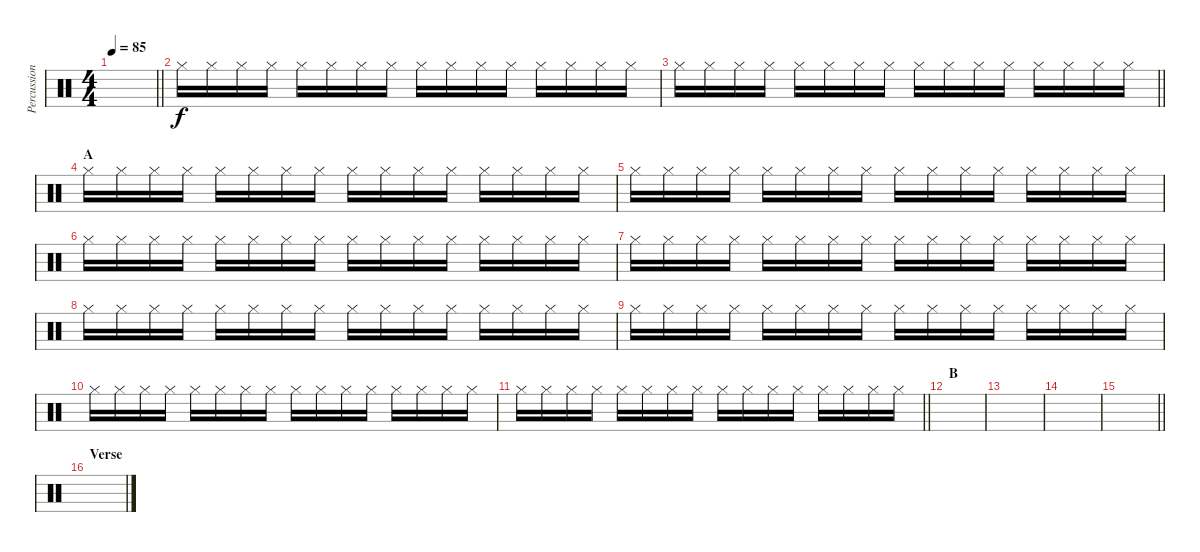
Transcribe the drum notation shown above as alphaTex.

\track ("Percussion" "Percussion") {instrument percussion}
\staff {score}
\articulation defaults
\ts (4 4)
\tempo 85
\clef neutral
\barLineRight lightlight
\ks c
|
"Hi-Hat (closed)".16 "Hi-Hat (closed)".16 "Hi-Hat (closed)".16 "Hi-Hat (closed)".16 "Hi-Hat (closed)".16 "Hi-Hat (closed)".16 "Hi-Hat (closed)".16 "Hi-Hat (closed)".16 "Hi-Hat (closed)".16 "Hi-Hat (closed)".16 "Hi-Hat (closed)".16 "Hi-Hat (closed)".16 "Hi-Hat (closed)".16 "Hi-Hat (closed)".16 "Hi-Hat (closed)".16 "Hi-Hat (closed)".16 |
\barLineRight lightlight "Hi-Hat (closed)".16 "Hi-Hat (closed)".16 "Hi-Hat (closed)".16 "Hi-Hat (closed)".16 "Hi-Hat (closed)".16 "Hi-Hat (closed)".16 "Hi-Hat (closed)".16 "Hi-Hat (closed)".16 "Hi-Hat (closed)".16 "Hi-Hat (closed)".16 "Hi-Hat (closed)".16 "Hi-Hat (closed)".16 "Hi-Hat (closed)".16 "Hi-Hat (closed)".16 "Hi-Hat (closed)".16 "Hi-Hat (closed)".16
|
\section ("" "A")
"Hi-Hat (closed)".16 "Hi-Hat (closed)".16 "Hi-Hat (closed)".16 "Hi-Hat (closed)".16 "Hi-Hat (closed)".16 "Hi-Hat (closed)".16 "Hi-Hat (closed)".16 "Hi-Hat (closed)".16 "Hi-Hat (closed)".16 "Hi-Hat (closed)".16 "Hi-Hat (closed)".16 "Hi-Hat (closed)".16 "Hi-Hat (closed)".16 "Hi-Hat (closed)".16 "Hi-Hat (closed)".16 "Hi-Hat (closed)".16 |
"Hi-Hat (closed)".16 "Hi-Hat (closed)".16 "Hi-Hat (closed)".16 "Hi-Hat (closed)".16 "Hi-Hat (closed)".16 "Hi-Hat (closed)".16 "Hi-Hat (closed)".16 "Hi-Hat (closed)".16 "Hi-Hat (closed)".16 "Hi-Hat (closed)".16 "Hi-Hat (closed)".16 "Hi-Hat (closed)".16 "Hi-Hat (closed)".16 "Hi-Hat (closed)".16 "Hi-Hat (closed)".16 "Hi-Hat (closed)".16 |
"Hi-Hat (closed)".16 "Hi-Hat (closed)".16 "Hi-Hat (closed)".16 "Hi-Hat (closed)".16 "Hi-Hat (closed)".16 "Hi-Hat (closed)".16 "Hi-Hat (closed)".16 "Hi-Hat (closed)".16 "Hi-Hat (closed)".16 "Hi-Hat (closed)".16 "Hi-Hat (closed)".16 "Hi-Hat (closed)".16 "Hi-Hat (closed)".16 "Hi-Hat (closed)".16 "Hi-Hat (closed)".16 "Hi-Hat (closed)".16 |
"Hi-Hat (closed)".16 "Hi-Hat (closed)".16 "Hi-Hat (closed)".16 "Hi-Hat (closed)".16 "Hi-Hat (closed)".16 "Hi-Hat (closed)".16 "Hi-Hat (closed)".16 "Hi-Hat (closed)".16 "Hi-Hat (closed)".16 "Hi-Hat (closed)".16 "Hi-Hat (closed)".16 "Hi-Hat (closed)".16 "Hi-Hat (closed)".16 "Hi-Hat (closed)".16 "Hi-Hat (closed)".16 "Hi-Hat (closed)".16 |
"Hi-Hat (closed)".16 "Hi-Hat (closed)".16 "Hi-Hat (closed)".16 "Hi-Hat (closed)".16 "Hi-Hat (closed)".16 "Hi-Hat (closed)".16 "Hi-Hat (closed)".16 "Hi-Hat (closed)".16 "Hi-Hat (closed)".16 "Hi-Hat (closed)".16 "Hi-Hat (closed)".16 "Hi-Hat (closed)".16 "Hi-Hat (closed)".16 "Hi-Hat (closed)".16 "Hi-Hat (closed)".16 "Hi-Hat (closed)".16 |
"Hi-Hat (closed)".16 "Hi-Hat (closed)".16 "Hi-Hat (closed)".16 "Hi-Hat (closed)".16 "Hi-Hat (closed)".16 "Hi-Hat (closed)".16 "Hi-Hat (closed)".16 "Hi-Hat (closed)".16 "Hi-Hat (closed)".16 "Hi-Hat (closed)".16 "Hi-Hat (closed)".16 "Hi-Hat (closed)".16 "Hi-Hat (closed)".16 "Hi-Hat (closed)".16 "Hi-Hat (closed)".16 "Hi-Hat (closed)".16 |
"Hi-Hat (closed)".16 "Hi-Hat (closed)".16 "Hi-Hat (closed)".16 "Hi-Hat (closed)".16 "Hi-Hat (closed)".16 "Hi-Hat (closed)".16 "Hi-Hat (closed)".16 "Hi-Hat (closed)".16 "Hi-Hat (closed)".16 "Hi-Hat (closed)".16 "Hi-Hat (closed)".16 "Hi-Hat (closed)".16 "Hi-Hat (closed)".16 "Hi-Hat (closed)".16 "Hi-Hat (closed)".16 "Hi-Hat (closed)".16 |
\barLineRight lightlight "Hi-Hat (closed)".16 "Hi-Hat (closed)".16 "Hi-Hat (closed)".16 "Hi-Hat (closed)".16 "Hi-Hat (closed)".16 "Hi-Hat (closed)".16 "Hi-Hat (closed)".16 "Hi-Hat (closed)".16 "Hi-Hat (closed)".16 "Hi-Hat (closed)".16 "Hi-Hat (closed)".16 "Hi-Hat (closed)".16 "Hi-Hat (closed)".16 "Hi-Hat (closed)".16 "Hi-Hat (closed)".16 "Hi-Hat (closed)".16
|
\section ("" "B")
|
|
|
\barLineRight lightlight
|
\section ("" "Verse")
